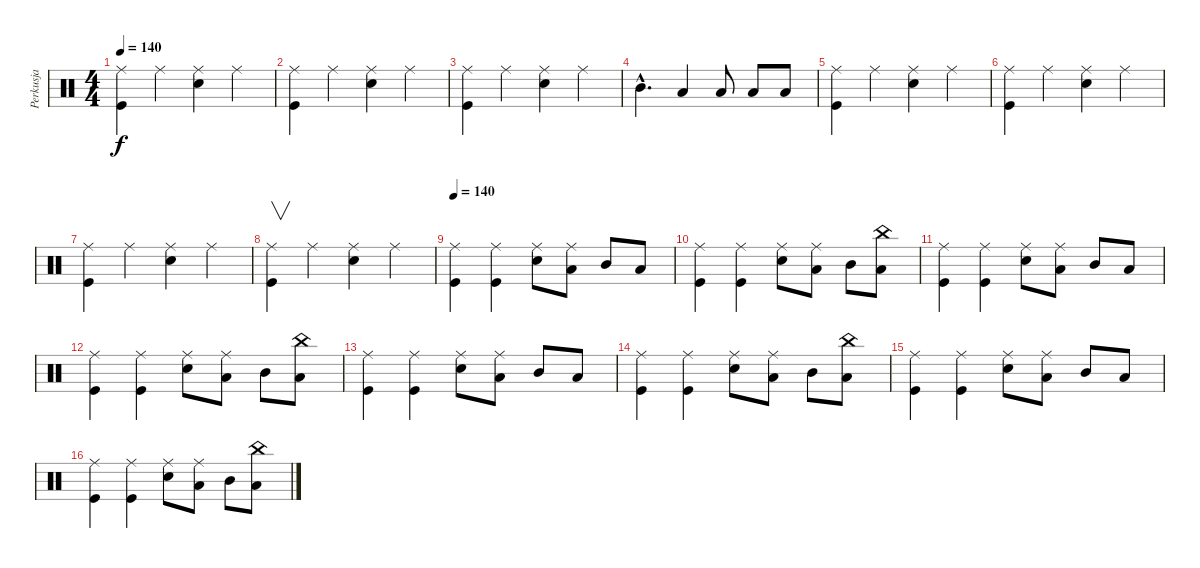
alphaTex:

\track ("Perkusja" "Perkusja") {instrument percussion}
\staff {score}
\articulation defaults
\ts (4 4)
\tempo 140
\clef neutral
\ks c
("Ride (middle)" "Kick (hit)").4{dy f} "Ride (middle)".4 ("Ride (middle)" "Snare (hit) 2").4 "Ride (middle)".4 |
("Ride (middle)" "Kick (hit)").4 "Ride (middle)".4 ("Ride (middle)" "Snare (hit) 2").4 "Ride (middle)".4 |
("Ride (middle)" "Kick (hit)").4 "Ride (middle)".4 ("Ride (middle)" "Snare (hit) 2").4 "Ride (middle)".4 |
"Mid Tom (hit)"{hac}.4{d} "Low Tom (hit)".4 "Low Tom (hit)".8 "Low Tom (hit)".8 "Low Floor Tom (hit)".8 |
("Ride (middle)" "Kick (hit)").4 "Ride (middle)".4 ("Ride (middle)" "Snare (hit) 2").4 "Ride (middle)".4 |
("Ride (middle)" "Kick (hit)").4 "Ride (middle)".4 ("Ride (middle)" "Snare (hit) 2").4 "Ride (middle)".4 |
("Ride (middle)" "Kick (hit)").4 "Ride (middle)".4 ("Ride (middle)" "Snare (hit) 2").4 "Ride (middle)".4 |
("Ride (middle)" "Kick (hit)").4{v} "Ride (middle)".4 ("Ride (middle)" "Snare (hit) 2").4 "Ride (middle)".4 |
\tempo 135
\tempo 140
("Ride (middle)" "Kick (hit)").4 ("Ride (middle)" "Kick (hit)").4 ("Ride (middle)" "Snare (hit) 2").8 ("Ride (middle)" "Low Tom (hit)").8 "Mid Tom (hit)".8 "Low Floor Tom (hit)".8 |
("Ride (middle)" "Kick (hit)").4 ("Ride (middle)" "Kick (hit)").4 ("Ride (middle)" "Snare (hit) 2").8 ("Ride (middle)" "Low Tom (hit)").8 "Mid Tom (hit)".8 ("China (hit)" "Low Floor Tom (hit)").8 |
("Ride (middle)" "Kick (hit)").4 ("Ride (middle)" "Kick (hit)").4 ("Ride (middle)" "Snare (hit) 2").8 ("Ride (middle)" "Low Tom (hit)").8 "Mid Tom (hit)".8 "Low Floor Tom (hit)".8 |
("Ride (middle)" "Kick (hit)").4 ("Ride (middle)" "Kick (hit)").4 ("Ride (middle)" "Snare (hit) 2").8 ("Ride (middle)" "Low Tom (hit)").8 "Mid Tom (hit)".8 ("China (hit)" "Low Floor Tom (hit)").8 |
("Ride (middle)" "Kick (hit)").4 ("Ride (middle)" "Kick (hit)").4 ("Ride (middle)" "Snare (hit) 2").8 ("Ride (middle)" "Low Tom (hit)").8 "Mid Tom (hit)".8 "Low Floor Tom (hit)".8 |
("Ride (middle)" "Kick (hit)").4 ("Ride (middle)" "Kick (hit)").4 ("Ride (middle)" "Snare (hit) 2").8 ("Ride (middle)" "Low Tom (hit)").8 "Mid Tom (hit)".8 ("China (hit)" "Low Floor Tom (hit)").8 |
("Ride (middle)" "Kick (hit)").4 ("Ride (middle)" "Kick (hit)").4 ("Ride (middle)" "Snare (hit) 2").8 ("Ride (middle)" "Low Tom (hit)").8 "Mid Tom (hit)".8 "Low Floor Tom (hit)".8 |
("Ride (middle)" "Kick (hit)").4 ("Ride (middle)" "Kick (hit)").4 ("Ride (middle)" "Snare (hit) 2").8 ("Ride (middle)" "Low Tom (hit)").8 "Mid Tom (hit)".8 ("China (hit)" "Low Floor Tom (hit)").8
